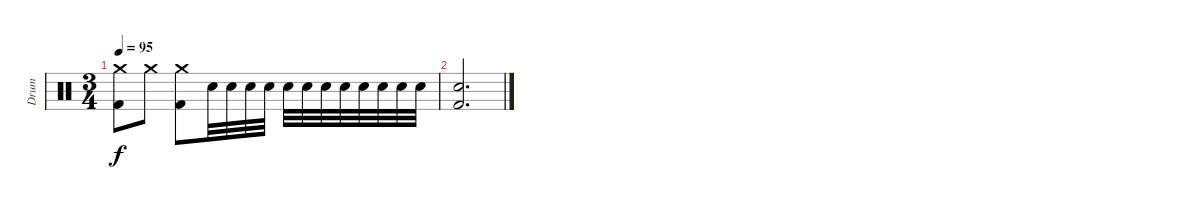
\track ("Drum" "Drum") {instrument percussion}
\staff {score}
\articulation defaults
\ts (3 4)
\tempo 95
\clef neutral
\ks c
("Crash medium (hit)" "Kick (hit) 2").8{dy f} "Crash medium (hit)".8 ("Crash medium (hit)" "Kick (hit) 2").8 "Electric Snare (hit)".32 "Electric Snare (hit)".32 "Electric Snare (hit)".32 "Electric Snare (hit)".32 "Electric Snare (hit)".32 "Electric Snare (hit)".32 "Electric Snare (hit)".32 "Electric Snare (hit)".32 "Electric Snare (hit)".32 "Electric Snare (hit)".32 "Electric Snare (hit)".32 "Electric Snare (hit)".32 |
("Electric Snare (hit)" "Kick (hit) 2").2{d}
